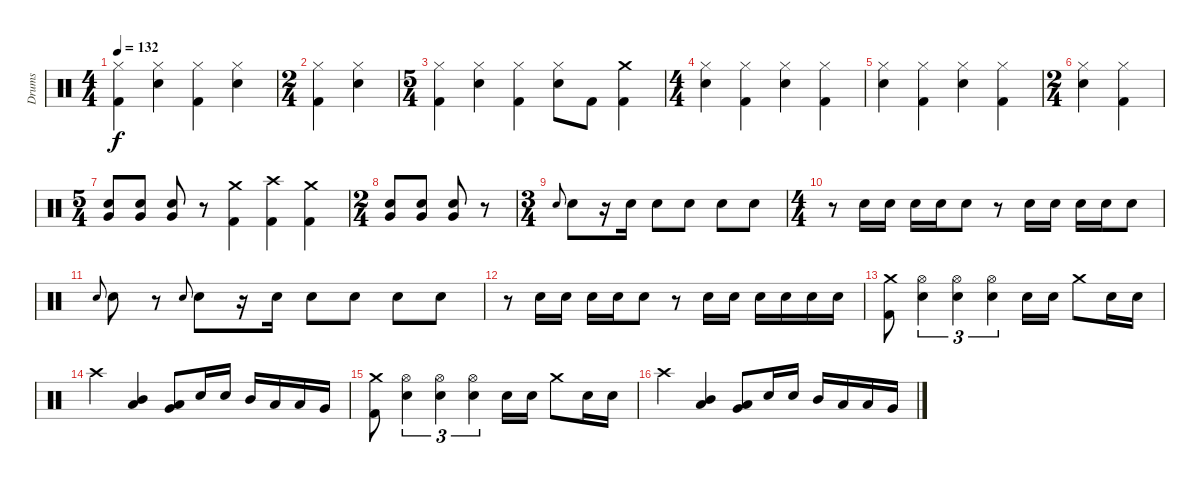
\track ("Drums" "Drums") {instrument percussion}
\staff {score}
\articulation defaults
\ts (4 4)
\tempo 132
\clef neutral
\ks c
("Hi-Hat (closed)" "Kick (hit) 2").4{dy f} ("Hi-Hat (closed)" "Snare (hit) 2").4 ("Hi-Hat (closed)" "Kick (hit) 2").4 ("Hi-Hat (closed)" "Snare (hit) 2").4 |
\ts (2 4)
("Hi-Hat (closed)" "Kick (hit) 2").4 ("Hi-Hat (closed)" "Snare (hit) 2").4 |
\ts (5 4)
("Hi-Hat (closed)" "Kick (hit) 2").4 ("Hi-Hat (closed)" "Snare (hit) 2").4 ("Hi-Hat (closed)" "Kick (hit) 2").4 ("Hi-Hat (closed)" "Snare (hit) 2").8 "Kick (hit) 2".8 ("Crash medium (hit)" "Kick (hit) 2").4 |
\ts (4 4)
("Hi-Hat (closed)" "Snare (hit) 2").4 ("Hi-Hat (closed)" "Kick (hit) 2").4 ("Hi-Hat (closed)" "Snare (hit) 2").4 ("Hi-Hat (closed)" "Kick (hit) 2").4 |
("Hi-Hat (closed)" "Snare (hit) 2").4 ("Hi-Hat (closed)" "Kick (hit) 2").4 ("Hi-Hat (closed)" "Snare (hit) 2").4 ("Hi-Hat (closed)" "Kick (hit) 2").4 |
\ts (2 4)
("Hi-Hat (closed)" "Snare (hit) 2").4 ("Hi-Hat (closed)" "Kick (hit) 2").4 |
\ts (5 4)
("Snare (hit) 2" "Very Low Tom (hit)").8 ("Snare (hit) 2" "Very Low Tom (hit)").8 ("Snare (hit) 2" "Very Low Tom (hit)").8 r.8 ("Crash medium (hit)" "Kick (hit) 2").4 ("Crash high (hit)" "Kick (hit) 2").4 ("Crash medium (hit)" "Kick (hit) 2").4 |
\ts (2 4)
("Snare (hit) 2" "Very Low Tom (hit)").8 ("Snare (hit) 2" "Very Low Tom (hit)").8 ("Snare (hit) 2" "Very Low Tom (hit)").8 r.8 |
\ts (3 4)
"Snare (hit) 2".8{gr onbeat} "Snare (hit) 2".8 r.16 "Snare (hit) 2".16 "Snare (hit) 2".8 "Snare (hit) 2".8 "Snare (hit) 2".8 "Snare (hit) 2".8 |
\ts (4 4)
r.8 "Snare (hit) 2".16 "Snare (hit) 2".16 "Snare (hit) 2".16 "Snare (hit) 2".16 "Snare (hit) 2".8 r.8 "Snare (hit) 2".16 "Snare (hit) 2".16 "Snare (hit) 2".16 "Snare (hit) 2".16 "Snare (hit) 2".8 |
"Snare (hit) 2".8{gr onbeat} "Snare (hit) 2".8 r.8 "Snare (hit) 2".8{gr onbeat} "Snare (hit) 2".8 r.16 "Snare (hit) 2".16 "Snare (hit) 2".8 "Snare (hit) 2".8 "Snare (hit) 2".8 "Snare (hit) 2".8 |
r.8 "Snare (hit) 2".16 "Snare (hit) 2".16 "Snare (hit) 2".16 "Snare (hit) 2".16 "Snare (hit) 2".8 r.8 "Snare (hit) 2".16 "Snare (hit) 2".16 "Snare (hit) 2".16 "Snare (hit) 2".16 "Snare (hit) 2".16 "Snare (hit) 2".16 |
("Crash medium (hit)" "Kick (hit) 2").8 ("Hi-Hat (open)" "Snare (hit) 2").4{tu (3 2)} ("Hi-Hat (open)" "Snare (hit) 2").4{tu (3 2)} ("Hi-Hat (open)" "Snare (hit) 2").4{tu (3 2)} "Snare (hit) 2".16 "Snare (hit) 2".16 "Crash medium (hit)".8 "Snare (hit) 2".16 "Snare (hit) 2".16 |
"Crash high (hit)".4 ("Mid Tom (hit)" "Low Tom (hit)").4 ("Low Tom (hit)" "Very Low Tom (hit)").8 "Snare (hit) 2".16 "Snare (hit) 2".16 "Mid Tom (hit)".16 "Low Tom (hit)".16 "Low Tom (hit)".16 "Very Low Tom (hit)".16 |
("Crash medium (hit)" "Kick (hit) 2").8 ("Hi-Hat (open)" "Snare (hit) 2").4{tu (3 2)} ("Hi-Hat (open)" "Snare (hit) 2").4{tu (3 2)} ("Hi-Hat (open)" "Snare (hit) 2").4{tu (3 2)} "Snare (hit) 2".16 "Snare (hit) 2".16 "Crash medium (hit)".8 "Snare (hit) 2".16 "Snare (hit) 2".16 |
"Crash high (hit)".4 ("Mid Tom (hit)" "Low Tom (hit)").4 ("Low Tom (hit)" "Very Low Tom (hit)").8 "Snare (hit) 2".16 "Snare (hit) 2".16 "Mid Tom (hit)".16 "Low Tom (hit)".16 "Low Tom (hit)".16 "Very Low Tom (hit)".16
